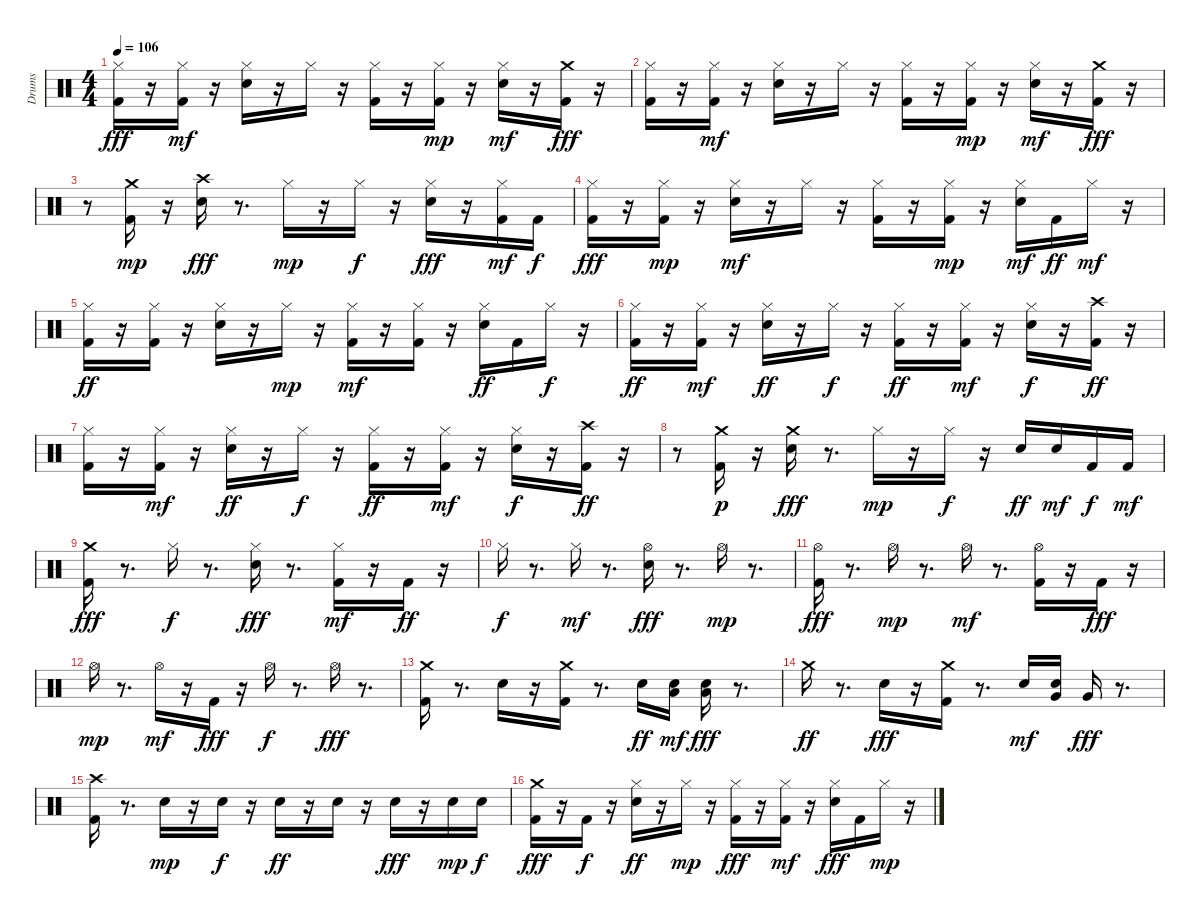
\track ("Drums" "Drums") {instrument percussion}
\staff {score}
\articulation defaults
\ts (4 4)
\tempo 106
\clef neutral
\ks c
("Kick (hit) 2" "Hi-Hat (closed)").16{dy fff} r.16 ("Kick (hit) 2" "Hi-Hat (closed)").16{dy mf} r.16 ("Snare (hit) 2" "Hi-Hat (closed)").16 r.16 "Hi-Hat (closed)".16 r.16 ("Kick (hit) 2" "Hi-Hat (closed)").16 r.16 ("Kick (hit) 2" "Hi-Hat (closed)").16{dy mp} r.16 ("Snare (hit) 2" "Hi-Hat (closed)").16{dy mf} r.16 ("Kick (hit) 2" "Crash medium (hit)").16{dy fff} r.16 |
("Kick (hit) 2" "Hi-Hat (closed)").16 r.16 ("Kick (hit) 2" "Hi-Hat (closed)").16{dy mf} r.16 ("Snare (hit) 2" "Hi-Hat (closed)").16 r.16 "Hi-Hat (closed)".16 r.16 ("Kick (hit) 2" "Hi-Hat (closed)").16 r.16 ("Kick (hit) 2" "Hi-Hat (closed)").16{dy mp} r.16 ("Snare (hit) 2" "Hi-Hat (closed)").16{dy mf} r.16 ("Kick (hit) 2" "Crash medium (hit)").16{dy fff} r.16 |
r.8 ("Kick (hit) 2" "Crash medium (hit)").16{dy mp} r.16 ("Crash high (hit)" "Snare (hit) 2").16{dy fff} r.8{d} "Hi-Hat (closed)".16{dy mp} r.16 "Hi-Hat (closed)".16{dy f} r.16 ("Hi-Hat (closed)" "Snare (hit) 2").16{dy fff} r.16 ("Hi-Hat (closed)" "Kick (hit) 2").16{dy mf} "Kick (hit) 2".16{dy f} |
("Hi-Hat (closed)" "Kick (hit) 2").16{dy fff} r.16 ("Kick (hit) 2" "Hi-Hat (closed)").16{dy mp} r.16 ("Snare (hit) 2" "Hi-Hat (closed)").16{dy mf} r.16 "Hi-Hat (closed)".16 r.16 ("Kick (hit) 2" "Hi-Hat (closed)").16 r.16 ("Hi-Hat (closed)" "Kick (hit) 2").16{dy mp} r.16 ("Snare (hit) 2" "Hi-Hat (closed)").16{dy mf} "Kick (hit) 2".16{dy ff} "Hi-Hat (closed)".16{dy mf} r.16 |
("Hi-Hat (closed)" "Kick (hit) 2").16{dy ff} r.16 ("Hi-Hat (closed)" "Kick (hit) 2").16 r.16 ("Snare (hit) 2" "Hi-Hat (closed)").16 r.16 "Hi-Hat (closed)".16{dy mp} r.16 ("Kick (hit) 2" "Hi-Hat (closed)").16{dy mf} r.16 ("Kick (hit) 2" "Hi-Hat (closed)").16 r.16 ("Snare (hit) 2" "Hi-Hat (closed)").16{dy ff} "Kick (hit) 2".16 "Hi-Hat (closed)".16{dy f} r.16 |
("Kick (hit) 2" "Hi-Hat (closed)").16{dy ff} r.16 ("Kick (hit) 2" "Hi-Hat (closed)").16{dy mf} r.16 ("Snare (hit) 2" "Hi-Hat (closed)").16{dy ff} r.16 "Hi-Hat (closed)".16{dy f} r.16 ("Kick (hit) 2" "Hi-Hat (closed)").16{dy ff} r.16 ("Kick (hit) 2" "Hi-Hat (closed)").16{dy mf} r.16 ("Hi-Hat (closed)" "Snare (hit) 2").16{dy f} r.16 ("Kick (hit) 2" "Crash high (hit)").16{dy ff} r.16 |
("Kick (hit) 2" "Hi-Hat (closed)").16 r.16 ("Kick (hit) 2" "Hi-Hat (closed)").16{dy mf} r.16 ("Snare (hit) 2" "Hi-Hat (closed)").16{dy ff} r.16 "Hi-Hat (closed)".16{dy f} r.16 ("Kick (hit) 2" "Hi-Hat (closed)").16{dy ff} r.16 ("Kick (hit) 2" "Hi-Hat (closed)").16{dy mf} r.16 ("Hi-Hat (closed)" "Snare (hit) 2").16{dy f} r.16 ("Kick (hit) 2" "Crash high (hit)").16{dy ff} r.16 |
r.8 ("Kick (hit) 2" "Crash medium (hit)").16{dy p} r.16 ("Crash medium (hit)" "Snare (hit) 2").16{dy fff} r.8{d} "Hi-Hat (closed)".16{dy mp} r.16 "Hi-Hat (closed)".16{dy f} r.16 "Snare (hit) 2".16{dy ff} "Snare (hit) 2".16{dy mf} "Kick (hit) 2".16{dy f} "Kick (hit) 2".16{dy mf} |
("Crash medium (hit)" "Kick (hit) 2").16{dy fff} r.8{d} "Hi-Hat (closed)".16{dy f} r.8{d} ("Hi-Hat (closed)" "Snare (hit) 2").16{dy fff} r.8{d} ("Hi-Hat (closed)" "Kick (hit) 2").16{dy mf} r.16 "Kick (hit) 2".16{dy ff} r.16 |
"Hi-Hat (closed)".16{dy f} r.8{d} "Hi-Hat (closed)".16{dy mf} r.8{d} ("Hi-Hat (open)" "Snare (hit) 2").16{dy fff} r.8{d} "Hi-Hat (open)".16{dy mp} r.8{d} |
("Hi-Hat (open)" "Kick (hit) 2").16{dy fff} r.8{d} "Hi-Hat (open)".16{dy mp} r.8{d} "Hi-Hat (open)".16{dy mf} r.8{d} ("Hi-Hat (open)" "Kick (hit) 2").16 r.16 "Kick (hit) 2".16{dy fff} r.16 |
"Hi-Hat (open)".16{dy mp} r.8{d} "Hi-Hat (open)".16{dy mf} r.16 "Kick (hit) 2".16{dy fff} r.16 "Hi-Hat (open)".16{dy f} r.8{d} "Hi-Hat (open)".16{dy fff} r.8{d} |
("Crash medium (hit)" "Kick (hit) 2").16 r.8{d} "Snare (hit) 2".16 r.16 ("Crash medium (hit)" "Kick (hit) 2").16 r.8{d} "Snare (hit) 2".16{dy ff} ("Snare (hit) 2" "Low Floor Tom (hit)").16{dy mf} ("Snare (hit) 2" "Low Floor Tom (hit)").16{dy fff} r.8{d} |
"Crash medium (hit)".16{dy ff} r.8{d} "Snare (hit) 2".16{dy fff} r.16 ("Crash medium (hit)" "Kick (hit) 2").16 r.8{d} "Snare (hit) 2".16{dy mf} ("Snare (hit) 2" "Very Low Tom (hit)").16 "Very Low Tom (hit)".16{dy fff} r.8{d} |
("Crash high (hit)" "Kick (hit) 2").16 r.8{d} "Snare (hit) 2".16{dy mp} r.16 "Snare (hit) 2".16{dy f} r.16 "Snare (hit) 2".16{dy ff} r.16 "Snare (hit) 2".16 r.16 "Snare (hit) 2".16{dy fff} r.16 "Snare (hit) 2".16{dy mp} "Snare (hit) 2".16{dy f} |
("Crash medium (hit)" "Kick (hit) 2").16{dy fff} r.16 "Kick (hit) 2".16{dy f} r.16 ("Hi-Hat (closed)" "Snare (hit) 2").16{dy ff} r.16 "Hi-Hat (closed)".16{dy mp} r.16 ("Hi-Hat (closed)" "Kick (hit) 2").16{dy fff} r.16 ("Hi-Hat (closed)" "Kick (hit) 2").16{dy mf} r.16 ("Hi-Hat (closed)" "Snare (hit) 2").16{dy fff} "Kick (hit) 2".16 "Hi-Hat (closed)".16{dy mp} r.16
